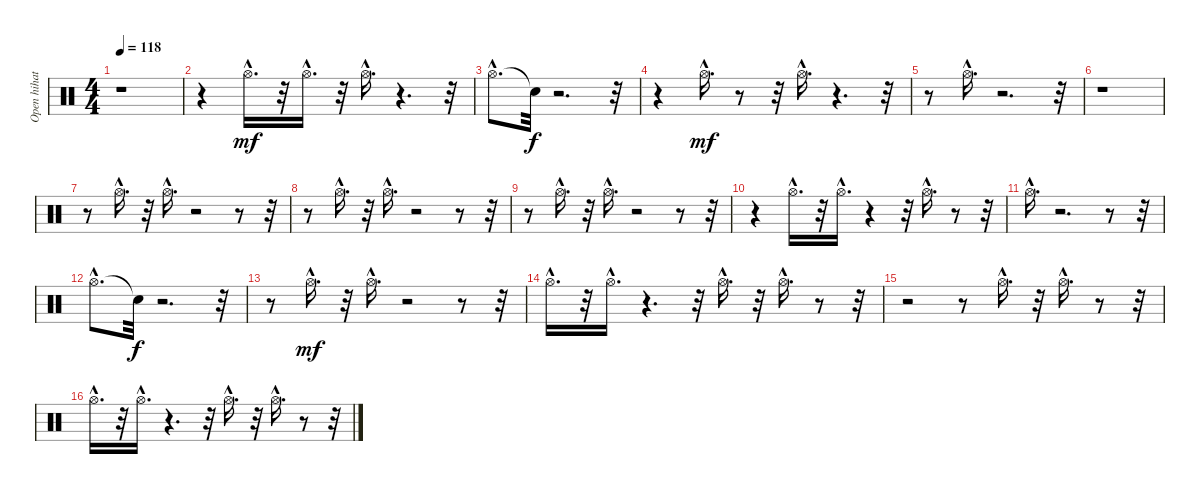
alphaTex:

\track ("Open hihat          " "Open hihat") {instrument percussion}
\staff {score}
\articulation defaults
\ts (4 4)
\tempo 118
\clef neutral
\ks c
r.1{dy mf} |
r.4 "Hi-Hat (open)"{hac}.16{d} r.32 "Hi-Hat (open)"{hac}.16{d} r.32 "Hi-Hat (open)"{hac}.16{d} r.4{d} r.32 |
"Hi-Hat (open)"{hac}.8{d} "Snare (hit)"{t}.32{dy f} r.2{d} r.32 |
r.4 "Hi-Hat (open)"{hac}.16{d dy mf} r.8 r.32 "Hi-Hat (open)"{hac}.16{d} r.4{d} r.32 |
r.8 "Hi-Hat (open)"{hac}.16{d} r.2{d} r.32 |
r.1 |
r.8 "Hi-Hat (open)"{hac}.16{d} r.32 "Hi-Hat (open)"{hac}.16{d} r.2 r.8 r.32 |
r.8 "Hi-Hat (open)"{hac}.16{d} r.32 "Hi-Hat (open)"{hac}.16{d} r.2 r.8 r.32 |
r.8 "Hi-Hat (open)"{hac}.16{d} r.32 "Hi-Hat (open)"{hac}.16{d} r.2 r.8 r.32 |
r.4 "Hi-Hat (open)"{hac}.16{d} r.32 "Hi-Hat (open)"{hac}.16{d} r.4 r.32 "Hi-Hat (open)"{hac}.16{d} r.8 r.32 |
"Hi-Hat (open)"{hac}.16{d} r.2{d} r.8 r.32 |
"Hi-Hat (open)"{hac}.8{d} "Snare (hit)"{t}.32{dy f} r.2{d} r.32 |
r.8 "Hi-Hat (open)"{hac}.16{d dy mf} r.32 "Hi-Hat (open)"{hac}.16{d} r.2 r.8 r.32 |
"Hi-Hat (open)"{hac}.16{d} r.32 "Hi-Hat (open)"{hac}.16{d} r.4{d} r.32 "Hi-Hat (open)"{hac}.16{d} r.32 "Hi-Hat (open)"{hac}.16{d} r.8 r.32 |
r.2 r.8 "Hi-Hat (open)"{hac}.16{d} r.32 "Hi-Hat (open)"{hac}.16{d} r.8 r.32 |
"Hi-Hat (open)"{hac}.16{d} r.32 "Hi-Hat (open)"{hac}.16{d} r.4{d} r.32 "Hi-Hat (open)"{hac}.16{d} r.32 "Hi-Hat (open)"{hac}.16{d} r.8 r.32
